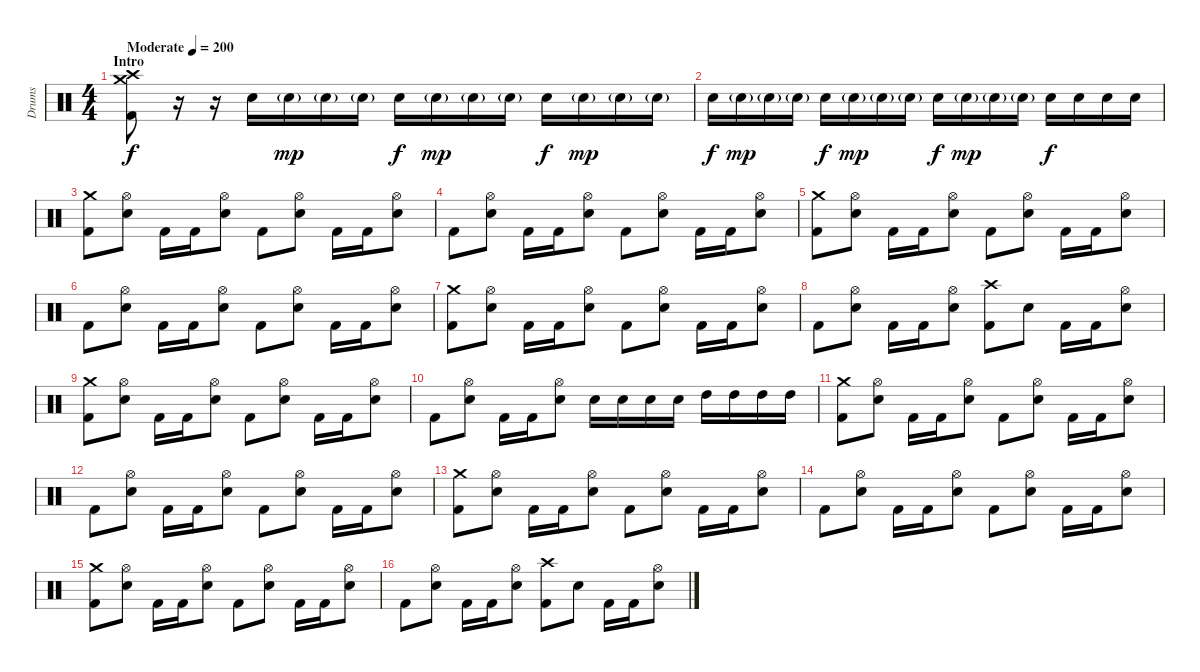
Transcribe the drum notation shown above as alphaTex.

\track ("Drums" "Drums") {instrument percussion}
\staff {score}
\articulation defaults
\ts (4 4)
\section ("" "Intro")
\tempo (200 "Moderate")
\clef neutral
\ks c
("Crash medium (hit)" "Crash high (hit)" "Kick (hit) 2").8{dy f} r.16 r.16 "Electric Snare (hit)".16 "Electric Snare (hit)"{g}.16{dy mp} "Electric Snare (hit)"{g}.16 "Electric Snare (hit)"{g}.16 "Electric Snare (hit)".16{dy f} "Electric Snare (hit)"{g}.16{dy mp} "Electric Snare (hit)"{g}.16 "Electric Snare (hit)"{g}.16 "Electric Snare (hit)".16{dy f} "Electric Snare (hit)"{g}.16{dy mp} "Electric Snare (hit)"{g}.16 "Electric Snare (hit)"{g}.16 |
"Electric Snare (hit)".16{dy f} "Electric Snare (hit)"{g}.16{dy mp} "Electric Snare (hit)"{g}.16 "Electric Snare (hit)"{g}.16 "Electric Snare (hit)".16{dy f} "Electric Snare (hit)"{g}.16{dy mp} "Electric Snare (hit)"{g}.16 "Electric Snare (hit)"{g}.16 "Electric Snare (hit)".16{dy f} "Electric Snare (hit)"{g}.16{dy mp} "Electric Snare (hit)"{g}.16 "Electric Snare (hit)"{g}.16 "Electric Snare (hit)".16{dy f} "Electric Snare (hit)".16 "Electric Snare (hit)".16 "Electric Snare (hit)".16 |
("Crash medium (hit)" "Kick (hit) 2").8 ("Hi-Hat (open)" "Electric Snare (hit)").8 "Kick (hit) 2".16 "Kick (hit) 2".16 ("Hi-Hat (open)" "Electric Snare (hit)").8 "Kick (hit) 2".8 ("Hi-Hat (open)" "Electric Snare (hit)").8 "Kick (hit) 2".16 "Kick (hit) 2".16 ("Hi-Hat (open)" "Electric Snare (hit)").8 |
"Kick (hit) 2".8 ("Hi-Hat (open)" "Electric Snare (hit)").8 "Kick (hit) 2".16 "Kick (hit) 2".16 ("Hi-Hat (open)" "Electric Snare (hit)").8 "Kick (hit) 2".8 ("Hi-Hat (open)" "Electric Snare (hit)").8 "Kick (hit) 2".16 "Kick (hit) 2".16 ("Hi-Hat (open)" "Electric Snare (hit)").8 |
("Crash medium (hit)" "Kick (hit) 2").8 ("Hi-Hat (open)" "Electric Snare (hit)").8 "Kick (hit) 2".16 "Kick (hit) 2".16 ("Hi-Hat (open)" "Electric Snare (hit)").8 "Kick (hit) 2".8 ("Hi-Hat (open)" "Electric Snare (hit)").8 "Kick (hit) 2".16 "Kick (hit) 2".16 ("Hi-Hat (open)" "Electric Snare (hit)").8 |
"Kick (hit) 2".8 ("Hi-Hat (open)" "Electric Snare (hit)").8 "Kick (hit) 2".16 "Kick (hit) 2".16 ("Hi-Hat (open)" "Electric Snare (hit)").8 "Kick (hit) 2".8 ("Hi-Hat (open)" "Electric Snare (hit)").8 "Kick (hit) 2".16 "Kick (hit) 2".16 ("Hi-Hat (open)" "Electric Snare (hit)").8 |
("Crash medium (hit)" "Kick (hit) 2").8 ("Hi-Hat (open)" "Electric Snare (hit)").8 "Kick (hit) 2".16 "Kick (hit) 2".16 ("Hi-Hat (open)" "Electric Snare (hit)").8 "Kick (hit) 2".8 ("Hi-Hat (open)" "Electric Snare (hit)").8 "Kick (hit) 2".16 "Kick (hit) 2".16 ("Hi-Hat (open)" "Electric Snare (hit)").8 |
"Kick (hit) 2".8 ("Hi-Hat (open)" "Electric Snare (hit)").8 "Kick (hit) 2".16 "Kick (hit) 2".16 ("Hi-Hat (open)" "Electric Snare (hit)").8 ("Crash high (hit)" "Kick (hit) 2").8 "Electric Snare (hit)".8 "Kick (hit) 2".16 "Kick (hit) 2".16 ("Hi-Hat (open)" "Electric Snare (hit)").8 |
("Crash medium (hit)" "Kick (hit) 2").8 ("Hi-Hat (open)" "Electric Snare (hit)").8 "Kick (hit) 2".16 "Kick (hit) 2".16 ("Hi-Hat (open)" "Electric Snare (hit)").8 "Kick (hit) 2".8 ("Hi-Hat (open)" "Electric Snare (hit)").8 "Kick (hit) 2".16 "Kick (hit) 2".16 ("Hi-Hat (open)" "Electric Snare (hit)").8 |
"Kick (hit) 2".8 ("Hi-Hat (open)" "Electric Snare (hit)").8 "Kick (hit) 2".16 "Kick (hit) 2".16 ("Hi-Hat (open)" "Electric Snare (hit)").8 "Electric Snare (hit)".16 "Electric Snare (hit)".16 "Electric Snare (hit)".16 "Electric Snare (hit)".16 "High Tom (hit)".16 "High Tom (hit)".16 "High Tom (hit)".16 "High Tom (hit)".16 |
("Crash medium (hit)" "Kick (hit) 2").8 ("Hi-Hat (open)" "Electric Snare (hit)").8 "Kick (hit) 2".16 "Kick (hit) 2".16 ("Hi-Hat (open)" "Electric Snare (hit)").8 "Kick (hit) 2".8 ("Hi-Hat (open)" "Electric Snare (hit)").8 "Kick (hit) 2".16 "Kick (hit) 2".16 ("Hi-Hat (open)" "Electric Snare (hit)").8 |
"Kick (hit) 2".8 ("Hi-Hat (open)" "Electric Snare (hit)").8 "Kick (hit) 2".16 "Kick (hit) 2".16 ("Hi-Hat (open)" "Electric Snare (hit)").8 "Kick (hit) 2".8 ("Hi-Hat (open)" "Electric Snare (hit)").8 "Kick (hit) 2".16 "Kick (hit) 2".16 ("Hi-Hat (open)" "Electric Snare (hit)").8 |
("Crash medium (hit)" "Kick (hit) 2").8 ("Hi-Hat (open)" "Electric Snare (hit)").8 "Kick (hit) 2".16 "Kick (hit) 2".16 ("Hi-Hat (open)" "Electric Snare (hit)").8 "Kick (hit) 2".8 ("Hi-Hat (open)" "Electric Snare (hit)").8 "Kick (hit) 2".16 "Kick (hit) 2".16 ("Hi-Hat (open)" "Electric Snare (hit)").8 |
"Kick (hit) 2".8 ("Hi-Hat (open)" "Electric Snare (hit)").8 "Kick (hit) 2".16 "Kick (hit) 2".16 ("Hi-Hat (open)" "Electric Snare (hit)").8 "Kick (hit) 2".8 ("Hi-Hat (open)" "Electric Snare (hit)").8 "Kick (hit) 2".16 "Kick (hit) 2".16 ("Hi-Hat (open)" "Electric Snare (hit)").8 |
("Crash medium (hit)" "Kick (hit) 2").8 ("Hi-Hat (open)" "Electric Snare (hit)").8 "Kick (hit) 2".16 "Kick (hit) 2".16 ("Hi-Hat (open)" "Electric Snare (hit)").8 "Kick (hit) 2".8 ("Hi-Hat (open)" "Electric Snare (hit)").8 "Kick (hit) 2".16 "Kick (hit) 2".16 ("Hi-Hat (open)" "Electric Snare (hit)").8 |
"Kick (hit) 2".8 ("Hi-Hat (open)" "Electric Snare (hit)").8 "Kick (hit) 2".16 "Kick (hit) 2".16 ("Hi-Hat (open)" "Electric Snare (hit)").8 ("Crash high (hit)" "Kick (hit) 2").8 "Electric Snare (hit)".8 "Kick (hit) 2".16 "Kick (hit) 2".16 ("Hi-Hat (open)" "Electric Snare (hit)").8
